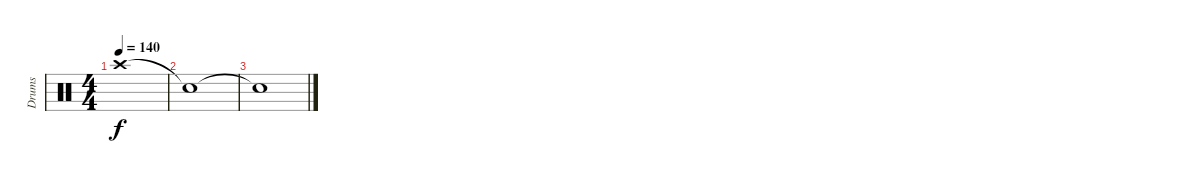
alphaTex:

\track ("Drums" "Drums") {instrument percussion}
\staff {score}
\articulation defaults
\ts (4 4)
\tempo 140
\clef neutral
\ks c "Crash high (hit)".1{dy f}
|
"Snare (hit)"{t}.1 |
"Snare (hit)"{t}.1
